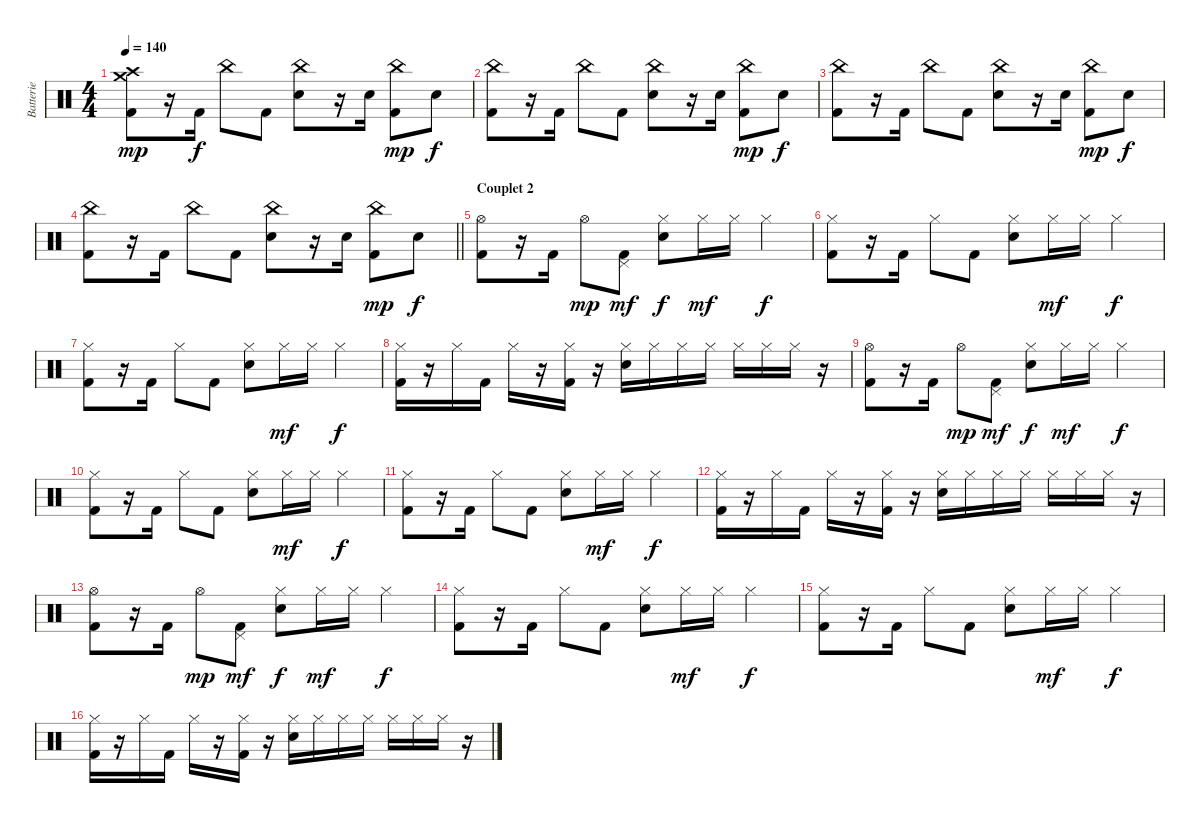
\track ("Batterie" "Batterie") {instrument percussion}
\staff {score}
\articulation defaults
\ts (4 4)
\tempo 140
\clef neutral
\ks c
("Kick (hit) 2" "Crash medium (hit)" "Crash high (hit)").8{dy mp} r.16 "Kick (hit) 2".16{dy f} "China (hit)".8 "Kick (hit) 2".8 ("Electric Snare (hit)" "China (hit)").8 r.16 "Electric Snare (hit)".16 ("Kick (hit) 2" "China (hit)").8{dy mp} "Electric Snare (hit)".8{dy f} |
("Kick (hit) 2" "China (hit)").8 r.16 "Kick (hit) 2".16 "China (hit)".8 "Kick (hit) 2".8 ("Electric Snare (hit)" "China (hit)").8 r.16 "Electric Snare (hit)".16 ("Kick (hit) 2" "China (hit)").8{dy mp} "Electric Snare (hit)".8{dy f} |
("Kick (hit) 2" "China (hit)").8 r.16 "Kick (hit) 2".16 "China (hit)".8 "Kick (hit) 2".8 ("Electric Snare (hit)" "China (hit)").8 r.16 "Electric Snare (hit)".16 ("Kick (hit) 2" "China (hit)").8{dy mp} "Electric Snare (hit)".8{dy f} |
\barLineRight lightlight
("Kick (hit) 2" "China (hit)").8 r.16 "Kick (hit) 2".16 "China (hit)".8 "Kick (hit) 2".8 ("Electric Snare (hit)" "China (hit)").8 r.16 "Electric Snare (hit)".16 ("Kick (hit) 2" "China (hit)").8{dy mp} "Electric Snare (hit)".8{dy f} |
\section ("" "Couplet 2")
("Kick (hit) 2" "Hi-Hat (open)").8 r.16 "Kick (hit) 2".16 "Hi-Hat (open)".8{dy mp} ("Kick (hit) 2" "Pedal Hi-Hat (hit)").8{dy mf} ("Electric Snare (hit)" "Hi-Hat (closed)").8{dy f} "Hi-Hat (closed)".16{dy mf} "Hi-Hat (closed)".16 "Hi-Hat (closed)".4{dy f} |
("Kick (hit) 2" "Hi-Hat (closed)").8 r.16 "Kick (hit) 2".16 "Hi-Hat (closed)".8 "Kick (hit) 2".8 ("Electric Snare (hit)" "Hi-Hat (closed)").8 "Hi-Hat (closed)".16{dy mf} "Hi-Hat (closed)".16 "Hi-Hat (closed)".4{dy f} |
("Kick (hit) 2" "Hi-Hat (closed)").8 r.16 "Kick (hit) 2".16 "Hi-Hat (closed)".8 "Kick (hit) 2".8 ("Electric Snare (hit)" "Hi-Hat (closed)").8 "Hi-Hat (closed)".16{dy mf} "Hi-Hat (closed)".16 "Hi-Hat (closed)".4{dy f} |
("Kick (hit) 2" "Hi-Hat (closed)").16 r.16 "Hi-Hat (closed)".16 "Kick (hit) 2".16 "Hi-Hat (closed)".16 r.16 ("Kick (hit) 2" "Hi-Hat (closed)").16 r.16 ("Electric Snare (hit)" "Hi-Hat (closed)").16 "Hi-Hat (closed)".16 "Hi-Hat (closed)".16 "Hi-Hat (closed)".16 "Hi-Hat (closed)".16 "Hi-Hat (closed)".16 "Hi-Hat (closed)".16 r.16 |
("Kick (hit) 2" "Hi-Hat (open)").8 r.16 "Kick (hit) 2".16 "Hi-Hat (open)".8{dy mp} ("Kick (hit) 2" "Pedal Hi-Hat (hit)").8{dy mf} ("Electric Snare (hit)" "Hi-Hat (closed)").8{dy f} "Hi-Hat (closed)".16{dy mf} "Hi-Hat (closed)".16 "Hi-Hat (closed)".4{dy f} |
("Kick (hit) 2" "Hi-Hat (closed)").8 r.16 "Kick (hit) 2".16 "Hi-Hat (closed)".8 "Kick (hit) 2".8 ("Electric Snare (hit)" "Hi-Hat (closed)").8 "Hi-Hat (closed)".16{dy mf} "Hi-Hat (closed)".16 "Hi-Hat (closed)".4{dy f} |
("Kick (hit) 2" "Hi-Hat (closed)").8 r.16 "Kick (hit) 2".16 "Hi-Hat (closed)".8 "Kick (hit) 2".8 ("Electric Snare (hit)" "Hi-Hat (closed)").8 "Hi-Hat (closed)".16{dy mf} "Hi-Hat (closed)".16 "Hi-Hat (closed)".4{dy f} |
("Kick (hit) 2" "Hi-Hat (closed)").16 r.16 "Hi-Hat (closed)".16 "Kick (hit) 2".16 "Hi-Hat (closed)".16 r.16 ("Kick (hit) 2" "Hi-Hat (closed)").16 r.16 ("Electric Snare (hit)" "Hi-Hat (closed)").16 "Hi-Hat (closed)".16 "Hi-Hat (closed)".16 "Hi-Hat (closed)".16 "Hi-Hat (closed)".16 "Hi-Hat (closed)".16 "Hi-Hat (closed)".16 r.16 |
("Kick (hit) 2" "Hi-Hat (open)").8 r.16 "Kick (hit) 2".16 "Hi-Hat (open)".8{dy mp} ("Kick (hit) 2" "Pedal Hi-Hat (hit)").8{dy mf} ("Electric Snare (hit)" "Hi-Hat (closed)").8{dy f} "Hi-Hat (closed)".16{dy mf} "Hi-Hat (closed)".16 "Hi-Hat (closed)".4{dy f} |
("Kick (hit) 2" "Hi-Hat (closed)").8 r.16 "Kick (hit) 2".16 "Hi-Hat (closed)".8 "Kick (hit) 2".8 ("Electric Snare (hit)" "Hi-Hat (closed)").8 "Hi-Hat (closed)".16{dy mf} "Hi-Hat (closed)".16 "Hi-Hat (closed)".4{dy f} |
("Kick (hit) 2" "Hi-Hat (closed)").8 r.16 "Kick (hit) 2".16 "Hi-Hat (closed)".8 "Kick (hit) 2".8 ("Electric Snare (hit)" "Hi-Hat (closed)").8 "Hi-Hat (closed)".16{dy mf} "Hi-Hat (closed)".16 "Hi-Hat (closed)".4{dy f} |
("Kick (hit) 2" "Hi-Hat (closed)").16 r.16 "Hi-Hat (closed)".16 "Kick (hit) 2".16 "Hi-Hat (closed)".16 r.16 ("Kick (hit) 2" "Hi-Hat (closed)").16 r.16 ("Electric Snare (hit)" "Hi-Hat (closed)").16 "Hi-Hat (closed)".16 "Hi-Hat (closed)".16 "Hi-Hat (closed)".16 "Hi-Hat (closed)".16 "Hi-Hat (closed)".16 "Hi-Hat (closed)".16 r.16
